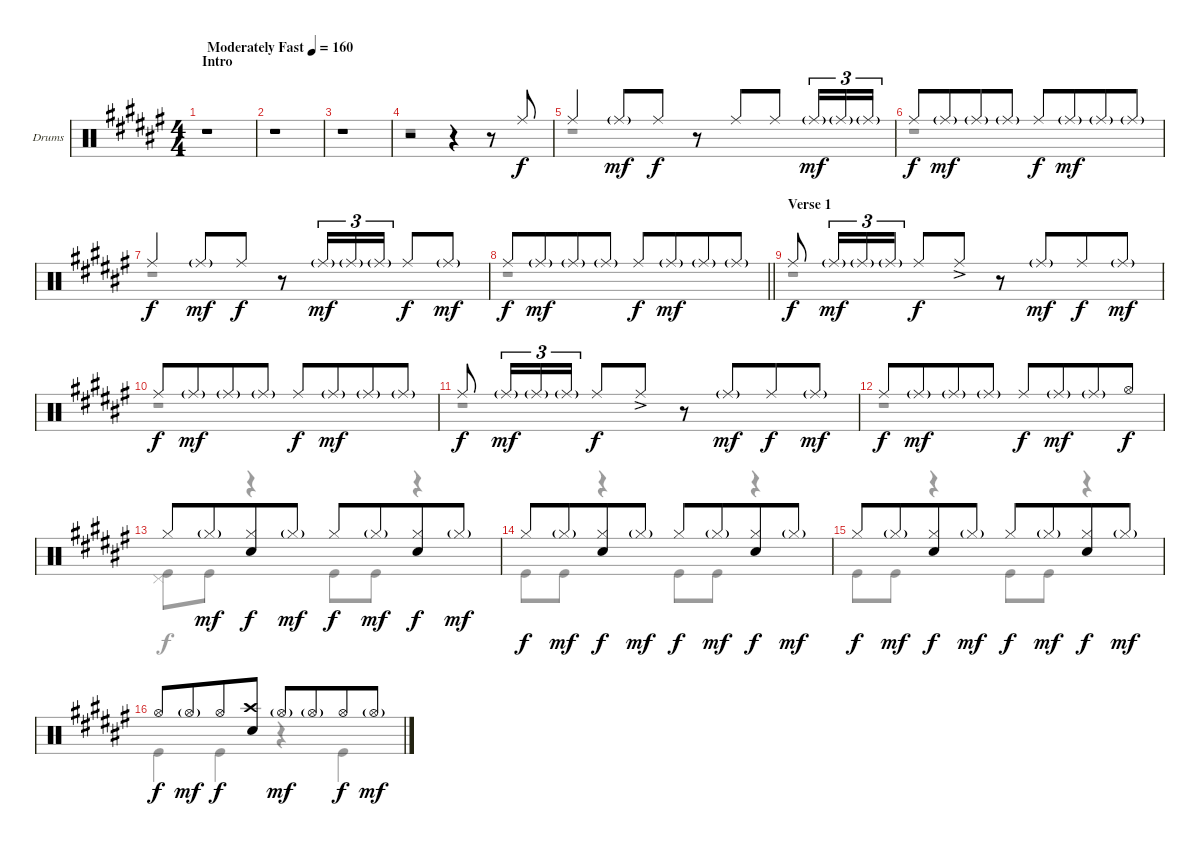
\bracketExtendMode groupsimilarinstruments
\firstSystemTrackNameOrientation horizontal
\otherSystemsTrackNameOrientation horizontal
\track ("Drumkit" "Drums") {instrument percussion}
\staff {score}
\articulation defaults
\voice
\ts (4 4)
\beaming (8 4 4)
\section ("" "Intro")
\tempo (160 "Moderately Fast")
\clef neutral
\ks d#minor
r.1{dy f} |
r.1 |
r.1 |
r.2 r.4 r.8 "Ride (middle)".8 |
"Ride (middle)".4 "Ride (middle)"{g}.8{dy mf} "Ride (middle)".8{dy f} r.8 "Ride (middle)".8 "Ride (middle)".8 "Ride (middle)"{g}.16{tu (3 2) dy mf} "Ride (middle)"{g}.16{tu (3 2)} "Ride (middle)"{g}.16{tu (3 2)} |
"Ride (middle)".8{dy f} "Ride (middle)"{g}.8{dy mf} "Ride (middle)"{g}.8 "Ride (middle)"{g}.8 "Ride (middle)".8{dy f} "Ride (middle)"{g}.8{dy mf} "Ride (middle)"{g}.8 "Ride (middle)"{g}.8 |
"Ride (middle)".4{dy f} "Ride (middle)"{g}.8{dy mf} "Ride (middle)".8{dy f} r.8 "Ride (middle)"{g}.16{tu (3 2) dy mf} "Ride (middle)"{g}.16{tu (3 2)} "Ride (middle)"{g}.16{tu (3 2)} "Ride (middle)".8{dy f} "Ride (middle)"{g}.8{dy mf} |
\barLineRight lightlight "Ride (middle)".8{dy f} "Ride (middle)"{g}.8{dy mf} "Ride (middle)"{g}.8 "Ride (middle)"{g}.8 "Ride (middle)".8{dy f} "Ride (middle)"{g}.8{dy mf} "Ride (middle)"{g}.8 "Ride (middle)"{g}.8
|
\section ("" "Verse 1")
"Ride (middle)".8{dy f} "Ride (middle)"{g}.16{tu (3 2) dy mf} "Ride (middle)"{g}.16{tu (3 2)} "Ride (middle)"{g}.16{tu (3 2)} "Ride (middle)".8{dy f} "Ride (middle)"{ac}.8 r.8 "Ride (middle)"{g}.8{dy mf} "Ride (middle)".8{dy f} "Ride (middle)"{g}.8{dy mf} |
"Ride (middle)".8{dy f} "Ride (middle)"{g}.8{dy mf} "Ride (middle)"{g}.8 "Ride (middle)"{g}.8 "Ride (middle)".8{dy f} "Ride (middle)"{g}.8{dy mf} "Ride (middle)"{g}.8 "Ride (middle)"{g}.8 |
"Ride (middle)".8{dy f} "Ride (middle)"{g}.16{tu (3 2) dy mf} "Ride (middle)"{g}.16{tu (3 2)} "Ride (middle)"{g}.16{tu (3 2)} "Ride (middle)".8{dy f} "Ride (middle)"{ac}.8 r.8 "Ride (middle)"{g}.8{dy mf} "Ride (middle)".8{dy f} "Ride (middle)"{g}.8{dy mf} |
"Ride (middle)".8{dy f} "Ride (middle)"{g}.8{dy mf} "Ride (middle)"{g}.8 "Ride (middle)"{g}.8 "Ride (middle)".8{dy f} "Ride (middle)"{g}.8{dy mf} "Ride (middle)"{g}.8 "Hi-Hat (open)".8{dy f} |
"Hi-Hat (closed)".8 "Hi-Hat (closed)"{g}.8{dy mf} ("Hi-Hat (closed)" "Snare (hit) 2").8{dy f} "Hi-Hat (closed)"{g}.8{dy mf} "Hi-Hat (closed)".8{dy f} "Hi-Hat (closed)"{g}.8{dy mf} ("Hi-Hat (closed)" "Snare (hit) 2").8{dy f} "Hi-Hat (closed)"{g}.8{dy mf} |
"Hi-Hat (closed)".8{dy f} "Hi-Hat (closed)"{g}.8{dy mf} ("Hi-Hat (closed)" "Snare (hit) 2").8{dy f} "Hi-Hat (closed)"{g}.8{dy mf} "Hi-Hat (closed)".8{dy f} "Hi-Hat (closed)"{g}.8{dy mf} ("Hi-Hat (closed)" "Snare (hit) 2").8{dy f} "Hi-Hat (closed)"{g}.8{dy mf} |
"Hi-Hat (closed)".8{dy f} "Hi-Hat (closed)"{g}.8{dy mf} ("Hi-Hat (closed)" "Snare (hit) 2").8{dy f} "Hi-Hat (closed)"{g}.8{dy mf} "Hi-Hat (closed)".8{dy f} "Hi-Hat (closed)"{g}.8{dy mf} ("Hi-Hat (closed)" "Snare (hit) 2").8{dy f} "Hi-Hat (closed)"{g}.8{dy mf} |
"Hi-Hat (open)".8{dy f} "Hi-Hat (open)"{g}.8{dy mf} "Hi-Hat (open)".8{dy f} ("Crash high (hit)" "Snare (hit) 2").8 "Hi-Hat (open)"{g}.8{dy mf} "Hi-Hat (open)"{g}.8 "Hi-Hat (open)".8{dy f} "Hi-Hat (open)"{g}.8{dy mf}
\voice
\clef neutral
\ottava regular
\simile none
\ks d#minor
r.1{dy f} |
r.1 |
r.1 |
r.1 |
r.1 |
r.1 |
r.1 |
\barLineRight lightlight
r.1 |
r.1 |
r.1 |
r.1 |
r.1 |
("Pedal Hi-Hat (hit)" "Kick (hit)").8 "Kick (hit)".8 r.4 "Kick (hit)".8 "Kick (hit)".8 r.4 |
"Kick (hit)".8 "Kick (hit)".8 r.4 "Kick (hit)".8 "Kick (hit)".8 r.4 |
"Kick (hit)".8 "Kick (hit)".8 r.4 "Kick (hit)".8 "Kick (hit)".8 r.4 |
"Kick (hit)".4 "Kick (hit)".4 r.4 "Kick (hit)".4
